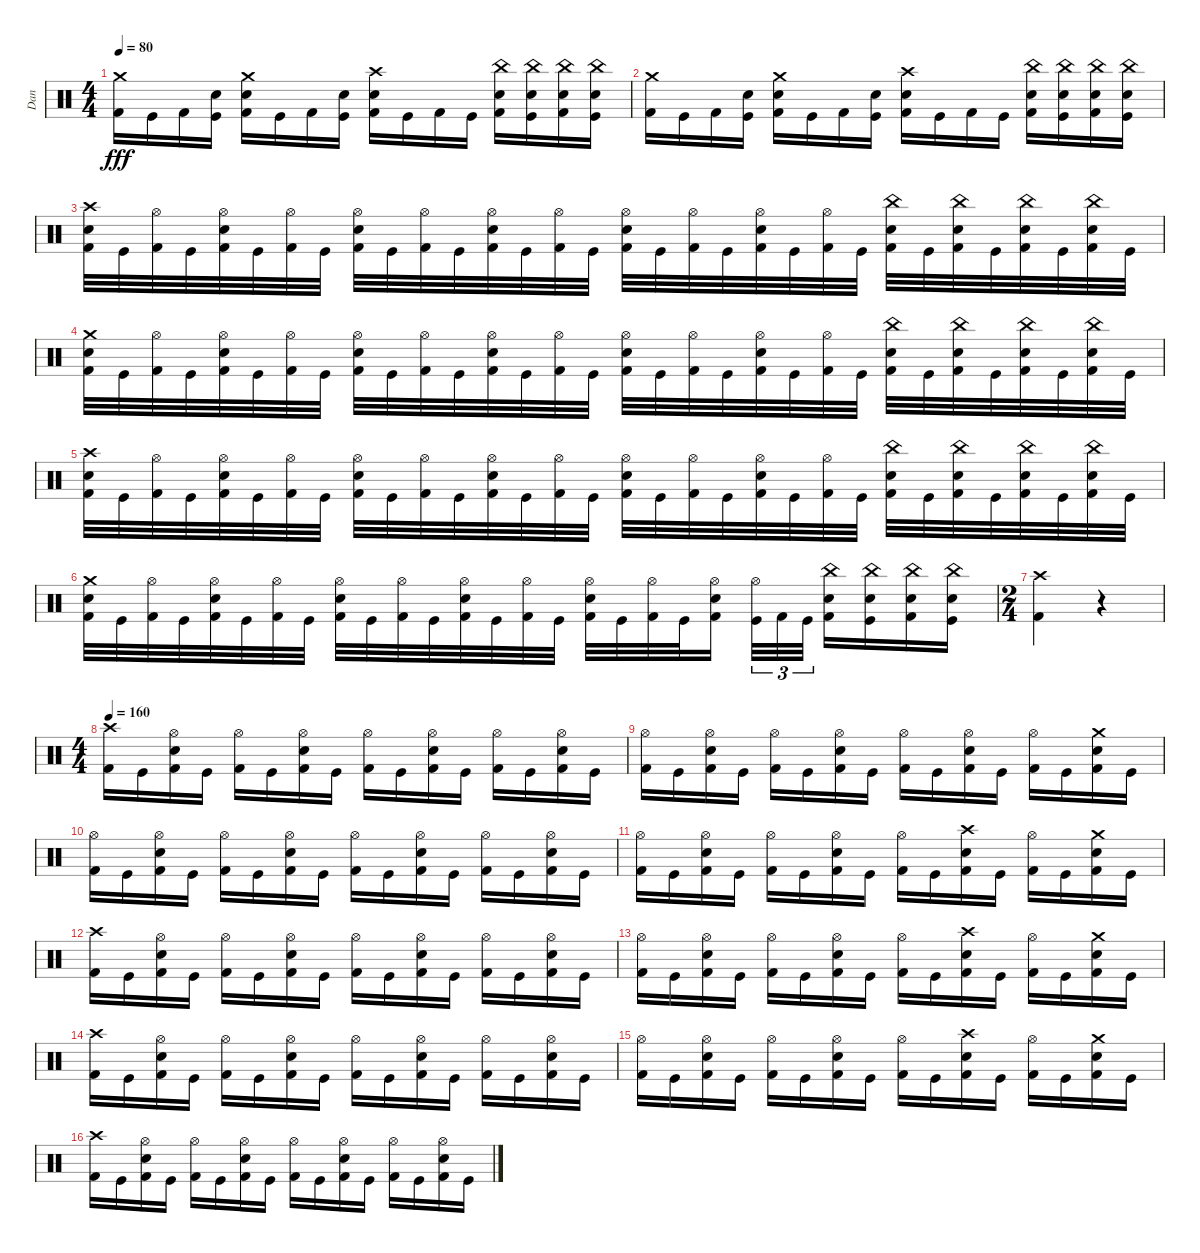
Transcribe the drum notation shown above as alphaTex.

\track ("Dan " "Dan ") {instrument percussion}
\staff {score}
\articulation defaults
\ts (4 4)
\tempo 80
\clef neutral
\ks c
("Crash medium (hit)" "Kick (hit) 2").16{dy fff} "Kick (hit)".16 "Kick (hit) 2".16 ("Electric Snare (hit)" "Kick (hit)").16 ("Crash medium (hit)" "Electric Snare (hit)" "Kick (hit) 2").16 "Kick (hit)".16 "Kick (hit) 2".16 ("Electric Snare (hit)" "Kick (hit)").16 ("Crash high (hit)" "Electric Snare (hit)" "Kick (hit) 2").16 "Kick (hit)".16 "Kick (hit) 2".16 "Kick (hit)".16 ("China (hit)" "Electric Snare (hit)" "Kick (hit) 2").16 ("China (hit)" "Electric Snare (hit)" "Kick (hit)").16 ("China (hit)" "Electric Snare (hit)" "Kick (hit) 2").16 ("China (hit)" "Electric Snare (hit)" "Kick (hit)").16 |
("Crash medium (hit)" "Kick (hit) 2").16 "Kick (hit)".16 "Kick (hit) 2".16 ("Electric Snare (hit)" "Kick (hit)").16 ("Crash medium (hit)" "Electric Snare (hit)" "Kick (hit) 2").16 "Kick (hit)".16 "Kick (hit) 2".16 ("Electric Snare (hit)" "Kick (hit)").16 ("Crash high (hit)" "Electric Snare (hit)" "Kick (hit) 2").16 "Kick (hit)".16 "Kick (hit) 2".16 "Kick (hit)".16 ("China (hit)" "Electric Snare (hit)" "Kick (hit) 2").16 ("China (hit)" "Electric Snare (hit)" "Kick (hit)").16 ("China (hit)" "Electric Snare (hit)" "Kick (hit) 2").16 ("China (hit)" "Electric Snare (hit)" "Kick (hit)").16 |
("Crash high (hit)" "Electric Snare (hit)" "Kick (hit) 2").32 "Kick (hit)".32 ("Hi-Hat (open)" "Kick (hit) 2").32 "Kick (hit)".32 ("Hi-Hat (open)" "Electric Snare (hit)" "Kick (hit) 2").32 "Kick (hit)".32 ("Hi-Hat (open)" "Kick (hit) 2").32 "Kick (hit)".32 ("Hi-Hat (open)" "Electric Snare (hit)" "Kick (hit) 2").32 "Kick (hit)".32 ("Hi-Hat (open)" "Kick (hit) 2").32 "Kick (hit)".32 ("Hi-Hat (open)" "Electric Snare (hit)" "Kick (hit) 2").32 "Kick (hit)".32 ("Hi-Hat (open)" "Kick (hit) 2").32 "Kick (hit)".32 ("Hi-Hat (open)" "Electric Snare (hit)" "Kick (hit) 2").32 "Kick (hit)".32 ("Hi-Hat (open)" "Kick (hit) 2").32 "Kick (hit)".32 ("Hi-Hat (open)" "Electric Snare (hit)" "Kick (hit) 2").32 "Kick (hit)".32 ("Hi-Hat (open)" "Kick (hit) 2").32 "Kick (hit)".32 ("China (hit)" "Electric Snare (hit)" "Kick (hit) 2").32 "Kick (hit)".32 ("China (hit)" "Electric Snare (hit)" "Kick (hit) 2").32 "Kick (hit)".32 ("China (hit)" "Electric Snare (hit)" "Kick (hit) 2").32 "Kick (hit)".32 ("China (hit)" "Electric Snare (hit)" "Kick (hit) 2").32 "Kick (hit)".32 |
("Crash medium (hit)" "Electric Snare (hit)" "Kick (hit) 2").32 "Kick (hit)".32 ("Hi-Hat (open)" "Kick (hit) 2").32 "Kick (hit)".32 ("Hi-Hat (open)" "Electric Snare (hit)" "Kick (hit) 2").32 "Kick (hit)".32 ("Hi-Hat (open)" "Kick (hit) 2").32 "Kick (hit)".32 ("Hi-Hat (open)" "Electric Snare (hit)" "Kick (hit) 2").32 "Kick (hit)".32 ("Hi-Hat (open)" "Kick (hit) 2").32 "Kick (hit)".32 ("Hi-Hat (open)" "Electric Snare (hit)" "Kick (hit) 2").32 "Kick (hit)".32 ("Hi-Hat (open)" "Kick (hit) 2").32 "Kick (hit)".32 ("Hi-Hat (open)" "Electric Snare (hit)" "Kick (hit) 2").32 "Kick (hit)".32 ("Hi-Hat (open)" "Kick (hit) 2").32 "Kick (hit)".32 ("Hi-Hat (open)" "Electric Snare (hit)" "Kick (hit) 2").32 "Kick (hit)".32 ("Hi-Hat (open)" "Kick (hit) 2").32 "Kick (hit)".32 ("China (hit)" "Electric Snare (hit)" "Kick (hit) 2").32 "Kick (hit)".32 ("China (hit)" "Electric Snare (hit)" "Kick (hit) 2").32 "Kick (hit)".32 ("China (hit)" "Electric Snare (hit)" "Kick (hit) 2").32 "Kick (hit)".32 ("China (hit)" "Electric Snare (hit)" "Kick (hit) 2").32 "Kick (hit)".32 |
("Crash high (hit)" "Electric Snare (hit)" "Kick (hit) 2").32 "Kick (hit)".32 ("Hi-Hat (open)" "Kick (hit) 2").32 "Kick (hit)".32 ("Hi-Hat (open)" "Electric Snare (hit)" "Kick (hit) 2").32 "Kick (hit)".32 ("Hi-Hat (open)" "Kick (hit) 2").32 "Kick (hit)".32 ("Hi-Hat (open)" "Electric Snare (hit)" "Kick (hit) 2").32 "Kick (hit)".32 ("Hi-Hat (open)" "Kick (hit) 2").32 "Kick (hit)".32 ("Hi-Hat (open)" "Electric Snare (hit)" "Kick (hit) 2").32 "Kick (hit)".32 ("Hi-Hat (open)" "Kick (hit) 2").32 "Kick (hit)".32 ("Hi-Hat (open)" "Electric Snare (hit)" "Kick (hit) 2").32 "Kick (hit)".32 ("Hi-Hat (open)" "Kick (hit) 2").32 "Kick (hit)".32 ("Hi-Hat (open)" "Electric Snare (hit)" "Kick (hit) 2").32 "Kick (hit)".32 ("Hi-Hat (open)" "Kick (hit) 2").32 "Kick (hit)".32 ("China (hit)" "Electric Snare (hit)" "Kick (hit) 2").32 "Kick (hit)".32 ("China (hit)" "Electric Snare (hit)" "Kick (hit) 2").32 "Kick (hit)".32 ("China (hit)" "Electric Snare (hit)" "Kick (hit) 2").32 "Kick (hit)".32 ("China (hit)" "Electric Snare (hit)" "Kick (hit) 2").32 "Kick (hit)".32 |
("Crash medium (hit)" "Electric Snare (hit)" "Kick (hit) 2").32 "Kick (hit)".32 ("Hi-Hat (open)" "Kick (hit) 2").32 "Kick (hit)".32 ("Hi-Hat (open)" "Electric Snare (hit)" "Kick (hit) 2").32 "Kick (hit)".32 ("Hi-Hat (open)" "Kick (hit) 2").32 "Kick (hit)".32 ("Hi-Hat (open)" "Electric Snare (hit)" "Kick (hit) 2").32 "Kick (hit)".32 ("Hi-Hat (open)" "Kick (hit) 2").32 "Kick (hit)".32 ("Hi-Hat (open)" "Electric Snare (hit)" "Kick (hit) 2").32 "Kick (hit)".32 ("Hi-Hat (open)" "Kick (hit) 2").32 "Kick (hit)".32 ("Hi-Hat (open)" "Electric Snare (hit)" "Kick (hit) 2").32 "Kick (hit)".32 ("Hi-Hat (open)" "Kick (hit) 2").32 "Kick (hit)".32 ("Hi-Hat (open)" "Electric Snare (hit)" "Kick (hit) 2").16 ("Hi-Hat (open)" "Kick (hit)").32{tu (3 2)} "Kick (hit) 2".32{tu (3 2)} "Kick (hit)".32{tu (3 2)} ("China (hit)" "Electric Snare (hit)" "Kick (hit) 2").16 ("China (hit)" "Electric Snare (hit)" "Kick (hit)").16 ("China (hit)" "Electric Snare (hit)" "Kick (hit) 2").16 ("China (hit)" "Electric Snare (hit)" "Kick (hit)").16 |
\ts (2 4)
("Crash high (hit)" "Kick (hit) 2").4 r.4 |
\ts (4 4)
\tempo 160
("Crash high (hit)" "Kick (hit) 2").16 "Kick (hit)".16 ("Hi-Hat (open)" "Electric Snare (hit)" "Kick (hit) 2").16 "Kick (hit)".16 ("Hi-Hat (open)" "Kick (hit) 2").16 "Kick (hit)".16 ("Hi-Hat (open)" "Electric Snare (hit)" "Kick (hit) 2").16 "Kick (hit)".16 ("Hi-Hat (open)" "Kick (hit) 2").16 "Kick (hit)".16 ("Hi-Hat (open)" "Electric Snare (hit)" "Kick (hit) 2").16 "Kick (hit)".16 ("Hi-Hat (open)" "Kick (hit) 2").16 "Kick (hit)".16 ("Hi-Hat (open)" "Electric Snare (hit)" "Kick (hit) 2").16 "Kick (hit)".16 |
("Hi-Hat (open)" "Kick (hit) 2").16 "Kick (hit)".16 ("Hi-Hat (open)" "Electric Snare (hit)" "Kick (hit) 2").16 "Kick (hit)".16 ("Hi-Hat (open)" "Kick (hit) 2").16 "Kick (hit)".16 ("Hi-Hat (open)" "Electric Snare (hit)" "Kick (hit) 2").16 "Kick (hit)".16 ("Hi-Hat (open)" "Kick (hit) 2").16 "Kick (hit)".16 ("Hi-Hat (open)" "Electric Snare (hit)" "Kick (hit) 2").16 "Kick (hit)".16 ("Hi-Hat (open)" "Kick (hit) 2").16 "Kick (hit)".16 ("Crash medium (hit)" "Electric Snare (hit)" "Kick (hit) 2").16 "Kick (hit)".16 |
("Hi-Hat (open)" "Kick (hit) 2").16 "Kick (hit)".16 ("Hi-Hat (open)" "Electric Snare (hit)" "Kick (hit) 2").16 "Kick (hit)".16 ("Hi-Hat (open)" "Kick (hit) 2").16 "Kick (hit)".16 ("Hi-Hat (open)" "Electric Snare (hit)" "Kick (hit) 2").16 "Kick (hit)".16 ("Hi-Hat (open)" "Kick (hit) 2").16 "Kick (hit)".16 ("Hi-Hat (open)" "Electric Snare (hit)" "Kick (hit) 2").16 "Kick (hit)".16 ("Hi-Hat (open)" "Kick (hit) 2").16 "Kick (hit)".16 ("Hi-Hat (open)" "Electric Snare (hit)" "Kick (hit) 2").16 "Kick (hit)".16 |
("Hi-Hat (open)" "Kick (hit) 2").16 "Kick (hit)".16 ("Hi-Hat (open)" "Electric Snare (hit)" "Kick (hit) 2").16 "Kick (hit)".16 ("Hi-Hat (open)" "Kick (hit) 2").16 "Kick (hit)".16 ("Hi-Hat (open)" "Electric Snare (hit)" "Kick (hit) 2").16 "Kick (hit)".16 ("Hi-Hat (open)" "Kick (hit) 2").16 "Kick (hit)".16 ("Crash high (hit)" "Electric Snare (hit)" "Kick (hit) 2").16 "Kick (hit)".16 ("Hi-Hat (open)" "Kick (hit) 2").16 "Kick (hit)".16 ("Crash medium (hit)" "Electric Snare (hit)" "Kick (hit) 2").16 "Kick (hit)".16 |
("Crash high (hit)" "Kick (hit) 2").16 "Kick (hit)".16 ("Hi-Hat (open)" "Electric Snare (hit)" "Kick (hit) 2").16 "Kick (hit)".16 ("Hi-Hat (open)" "Kick (hit) 2").16 "Kick (hit)".16 ("Hi-Hat (open)" "Electric Snare (hit)" "Kick (hit) 2").16 "Kick (hit)".16 ("Hi-Hat (open)" "Kick (hit) 2").16 "Kick (hit)".16 ("Hi-Hat (open)" "Electric Snare (hit)" "Kick (hit) 2").16 "Kick (hit)".16 ("Hi-Hat (open)" "Kick (hit) 2").16 "Kick (hit)".16 ("Hi-Hat (open)" "Electric Snare (hit)" "Kick (hit) 2").16 "Kick (hit)".16 |
("Hi-Hat (open)" "Kick (hit) 2").16 "Kick (hit)".16 ("Hi-Hat (open)" "Electric Snare (hit)" "Kick (hit) 2").16 "Kick (hit)".16 ("Hi-Hat (open)" "Kick (hit) 2").16 "Kick (hit)".16 ("Hi-Hat (open)" "Electric Snare (hit)" "Kick (hit) 2").16 "Kick (hit)".16 ("Hi-Hat (open)" "Kick (hit) 2").16 "Kick (hit)".16 ("Crash high (hit)" "Electric Snare (hit)" "Kick (hit) 2").16 "Kick (hit)".16 ("Hi-Hat (open)" "Kick (hit) 2").16 "Kick (hit)".16 ("Crash medium (hit)" "Electric Snare (hit)" "Kick (hit) 2").16 "Kick (hit)".16 |
("Crash high (hit)" "Kick (hit) 2").16 "Kick (hit)".16 ("Hi-Hat (open)" "Electric Snare (hit)" "Kick (hit) 2").16 "Kick (hit)".16 ("Hi-Hat (open)" "Kick (hit) 2").16 "Kick (hit)".16 ("Hi-Hat (open)" "Electric Snare (hit)" "Kick (hit) 2").16 "Kick (hit)".16 ("Hi-Hat (open)" "Kick (hit) 2").16 "Kick (hit)".16 ("Hi-Hat (open)" "Electric Snare (hit)" "Kick (hit) 2").16 "Kick (hit)".16 ("Hi-Hat (open)" "Kick (hit) 2").16 "Kick (hit)".16 ("Hi-Hat (open)" "Electric Snare (hit)" "Kick (hit) 2").16 "Kick (hit)".16 |
("Hi-Hat (open)" "Kick (hit) 2").16 "Kick (hit)".16 ("Hi-Hat (open)" "Electric Snare (hit)" "Kick (hit) 2").16 "Kick (hit)".16 ("Hi-Hat (open)" "Kick (hit) 2").16 "Kick (hit)".16 ("Hi-Hat (open)" "Electric Snare (hit)" "Kick (hit) 2").16 "Kick (hit)".16 ("Hi-Hat (open)" "Kick (hit) 2").16 "Kick (hit)".16 ("Crash high (hit)" "Electric Snare (hit)" "Kick (hit) 2").16 "Kick (hit)".16 ("Hi-Hat (open)" "Kick (hit) 2").16 "Kick (hit)".16 ("Crash medium (hit)" "Electric Snare (hit)" "Kick (hit) 2").16 "Kick (hit)".16 |
("Crash high (hit)" "Kick (hit) 2").16 "Kick (hit)".16 ("Hi-Hat (open)" "Electric Snare (hit)" "Kick (hit) 2").16 "Kick (hit)".16 ("Hi-Hat (open)" "Kick (hit) 2").16 "Kick (hit)".16 ("Hi-Hat (open)" "Electric Snare (hit)" "Kick (hit) 2").16 "Kick (hit)".16 ("Hi-Hat (open)" "Kick (hit) 2").16 "Kick (hit)".16 ("Hi-Hat (open)" "Electric Snare (hit)" "Kick (hit) 2").16 "Kick (hit)".16 ("Hi-Hat (open)" "Kick (hit) 2").16 "Kick (hit)".16 ("Hi-Hat (open)" "Electric Snare (hit)" "Kick (hit) 2").16 "Kick (hit)".16
